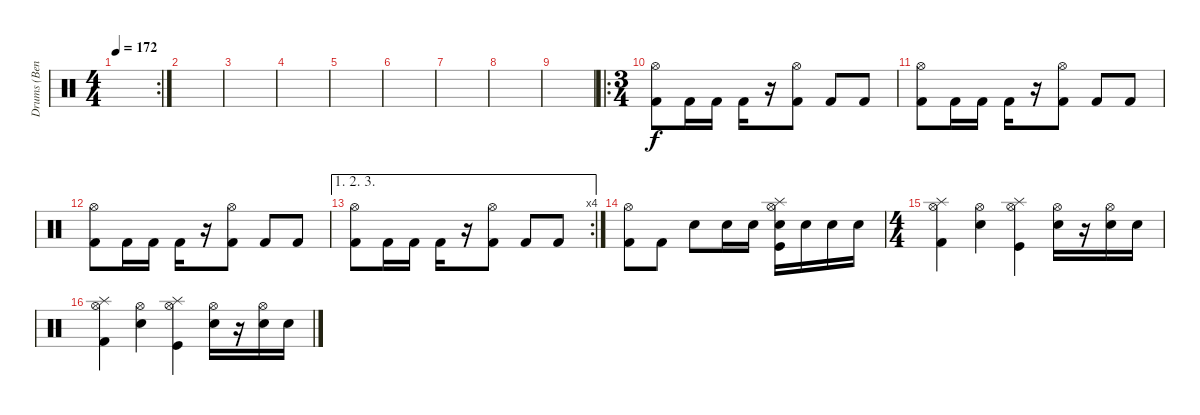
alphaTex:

\track ("Drums (Ben)" "Drums (Ben") {instrument percussion}
\staff {score}
\articulation defaults
\rc 2
\ts (4 4)
\tempo 172
\clef neutral
\ks c
|
|
|
|
|
|
|
|
|
\ro
\ts (3 4)
("Hi-Hat (open)" "Kick (hit) 2").8 "Kick (hit) 2".16 "Kick (hit) 2".16 "Kick (hit) 2".16 r.16 ("Hi-Hat (open)" "Kick (hit) 2").8 "Kick (hit) 2".8 "Kick (hit) 2".8 |
("Hi-Hat (open)" "Kick (hit) 2").8 "Kick (hit) 2".16 "Kick (hit) 2".16 "Kick (hit) 2".16 r.16 ("Hi-Hat (open)" "Kick (hit) 2").8 "Kick (hit) 2".8 "Kick (hit) 2".8 |
("Hi-Hat (open)" "Kick (hit) 2").8 "Kick (hit) 2".16 "Kick (hit) 2".16 "Kick (hit) 2".16 r.16 ("Hi-Hat (open)" "Kick (hit) 2").8 "Kick (hit) 2".8 "Kick (hit) 2".8 |
\ae (1 2 3)
\rc 4
("Hi-Hat (open)" "Kick (hit) 2").8 "Kick (hit) 2".16 "Kick (hit) 2".16 "Kick (hit) 2".16 r.16 ("Hi-Hat (open)" "Kick (hit) 2").8 "Kick (hit) 2".8 "Kick (hit) 2".8 |
("Hi-Hat (open)" "Kick (hit) 2").8 "Kick (hit) 2".8 "Snare (hit) 2".8 "Snare (hit) 2".16 "Snare (hit) 2".16 ("Kick (hit)" "Snare (hit) 2" "Hi-Hat (open)" "Splash (hit)").16 "Snare (hit) 2".16 "Snare (hit) 2".16 "Snare (hit) 2".16 |
\ts (4 4)
("Kick (hit) 2" "Hi-Hat (open)" "Splash (hit)").4 ("Snare (hit) 2" "Hi-Hat (open)").4 ("Kick (hit)" "Hi-Hat (open)" "Splash (hit)").4 ("Snare (hit) 2" "Hi-Hat (open)").16 r.16 ("Snare (hit) 2" "Hi-Hat (open)").16 "Snare (hit) 2".16 |
("Kick (hit) 2" "Hi-Hat (open)" "Splash (hit)").4 ("Snare (hit) 2" "Hi-Hat (open)").4 ("Kick (hit)" "Hi-Hat (open)" "Splash (hit)").4 ("Snare (hit) 2" "Hi-Hat (open)").16 r.16 ("Snare (hit) 2" "Hi-Hat (open)").16 "Snare (hit) 2".16
